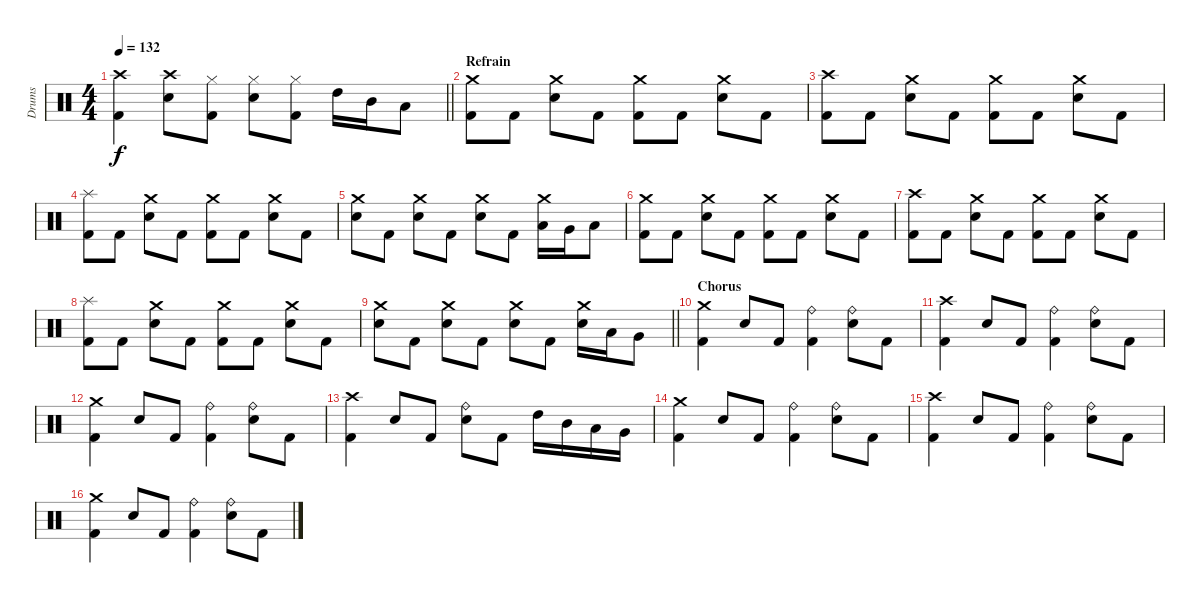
\track ("Drums" "Drums") {instrument percussion}
\staff {score}
\articulation defaults
\ts (4 4)
\tempo 132
\clef neutral
\barLineRight lightlight
\ks c
("Kick (hit) 2" "Crash high (hit)").4{dy f} ("Electric Snare (hit)" "Crash high (hit)").8 ("Kick (hit) 2" "Hi-Hat (closed)").8 ("Electric Snare (hit)" "Hi-Hat (closed)").8 ("Kick (hit) 2" "Hi-Hat (closed)").8 "High Tom (hit)".16 "Mid Tom (hit)".16 "Low Tom (hit)".8 |
\section ("" "Refrain")
("Kick (hit) 2" "Crash medium (hit)").8 "Kick (hit) 2".8 ("Electric Snare (hit)" "Crash medium (hit)").8 "Kick (hit) 2".8 ("Kick (hit) 2" "Crash medium (hit)").8 "Kick (hit) 2".8 ("Electric Snare (hit)" "Crash medium (hit)").8 "Kick (hit) 2".8 |
("Kick (hit) 2" "Crash high (hit)").8 "Kick (hit) 2".8 ("Electric Snare (hit)" "Crash medium (hit)").8 "Kick (hit) 2".8 ("Kick (hit) 2" "Crash medium (hit)").8 "Kick (hit) 2".8 ("Electric Snare (hit)" "Crash medium (hit)").8 "Kick (hit) 2".8 |
("Kick (hit) 2" "Splash (hit)").8 "Kick (hit) 2".8 ("Electric Snare (hit)" "Crash medium (hit)").8 "Kick (hit) 2".8 ("Kick (hit) 2" "Crash medium (hit)").8 "Kick (hit) 2".8 ("Electric Snare (hit)" "Crash medium (hit)").8 "Kick (hit) 2".8 |
("Electric Snare (hit)" "Crash medium (hit)").8 "Kick (hit) 2".8 ("Electric Snare (hit)" "Crash medium (hit)").8 "Kick (hit) 2".8 ("Electric Snare (hit)" "Crash medium (hit)").8 "Kick (hit) 2".8 ("Low Tom (hit)" "Crash medium (hit)").16 "Very Low Tom (hit)".16 "Low Floor Tom (hit)".8 |
("Kick (hit) 2" "Crash medium (hit)").8 "Kick (hit) 2".8 ("Electric Snare (hit)" "Crash medium (hit)").8 "Kick (hit) 2".8 ("Kick (hit) 2" "Crash medium (hit)").8 "Kick (hit) 2".8 ("Electric Snare (hit)" "Crash medium (hit)").8 "Kick (hit) 2".8 |
("Kick (hit) 2" "Crash high (hit)").8 "Kick (hit) 2".8 ("Electric Snare (hit)" "Crash medium (hit)").8 "Kick (hit) 2".8 ("Kick (hit) 2" "Crash medium (hit)").8 "Kick (hit) 2".8 ("Electric Snare (hit)" "Crash medium (hit)").8 "Kick (hit) 2".8 |
("Kick (hit) 2" "Splash (hit)").8 "Kick (hit) 2".8 ("Electric Snare (hit)" "Crash medium (hit)").8 "Kick (hit) 2".8 ("Kick (hit) 2" "Crash medium (hit)").8 "Kick (hit) 2".8 ("Electric Snare (hit)" "Crash medium (hit)").8 "Kick (hit) 2".8 |
\barLineRight lightlight
("Electric Snare (hit)" "Crash medium (hit)").8 "Kick (hit) 2".8 ("Electric Snare (hit)" "Crash medium (hit)").8 "Kick (hit) 2".8 ("Electric Snare (hit)" "Crash medium (hit)").8 "Kick (hit) 2".8 ("Electric Snare (hit)" "Crash medium (hit)").16 "Low Tom (hit)".16 "Very Low Tom (hit)".8 |
\section ("" "Chorus")
("Kick (hit) 2" "Crash medium (hit)").4 "Electric Snare (hit)".8 "Kick (hit) 2".8 ("Kick (hit) 2" "Ride (bell)").4 ("Electric Snare (hit)" "Ride (bell)").8 "Kick (hit) 2".8 |
("Kick (hit) 2" "Crash high (hit)").4 "Electric Snare (hit)".8 "Kick (hit) 2".8 ("Kick (hit) 2" "Ride (bell)").4 ("Electric Snare (hit)" "Ride (bell)").8 "Kick (hit) 2".8 |
("Kick (hit) 2" "Crash medium (hit)").4 "Electric Snare (hit)".8 "Kick (hit) 2".8 ("Kick (hit) 2" "Ride (bell)").4 ("Electric Snare (hit)" "Ride (bell)").8 "Kick (hit) 2".8 |
("Kick (hit) 2" "Crash high (hit)").4 "Electric Snare (hit)".8 "Kick (hit) 2".8 ("Electric Snare (hit)" "Ride (bell)").8 "Kick (hit) 2".8 "High Tom (hit)".16 "Mid Tom (hit)".16 "Low Tom (hit)".16 "Very Low Tom (hit)".16 |
("Kick (hit) 2" "Crash medium (hit)").4 "Electric Snare (hit)".8 "Kick (hit) 2".8 ("Kick (hit) 2" "Ride (bell)").4 ("Electric Snare (hit)" "Ride (bell)").8 "Kick (hit) 2".8 |
("Kick (hit) 2" "Crash high (hit)").4 "Electric Snare (hit)".8 "Kick (hit) 2".8 ("Kick (hit) 2" "Ride (bell)").4 ("Electric Snare (hit)" "Ride (bell)").8 "Kick (hit) 2".8 |
("Kick (hit) 2" "Crash medium (hit)").4 "Electric Snare (hit)".8 "Kick (hit) 2".8 ("Kick (hit) 2" "Ride (bell)").4 ("Electric Snare (hit)" "Ride (bell)").8 "Kick (hit) 2".8
